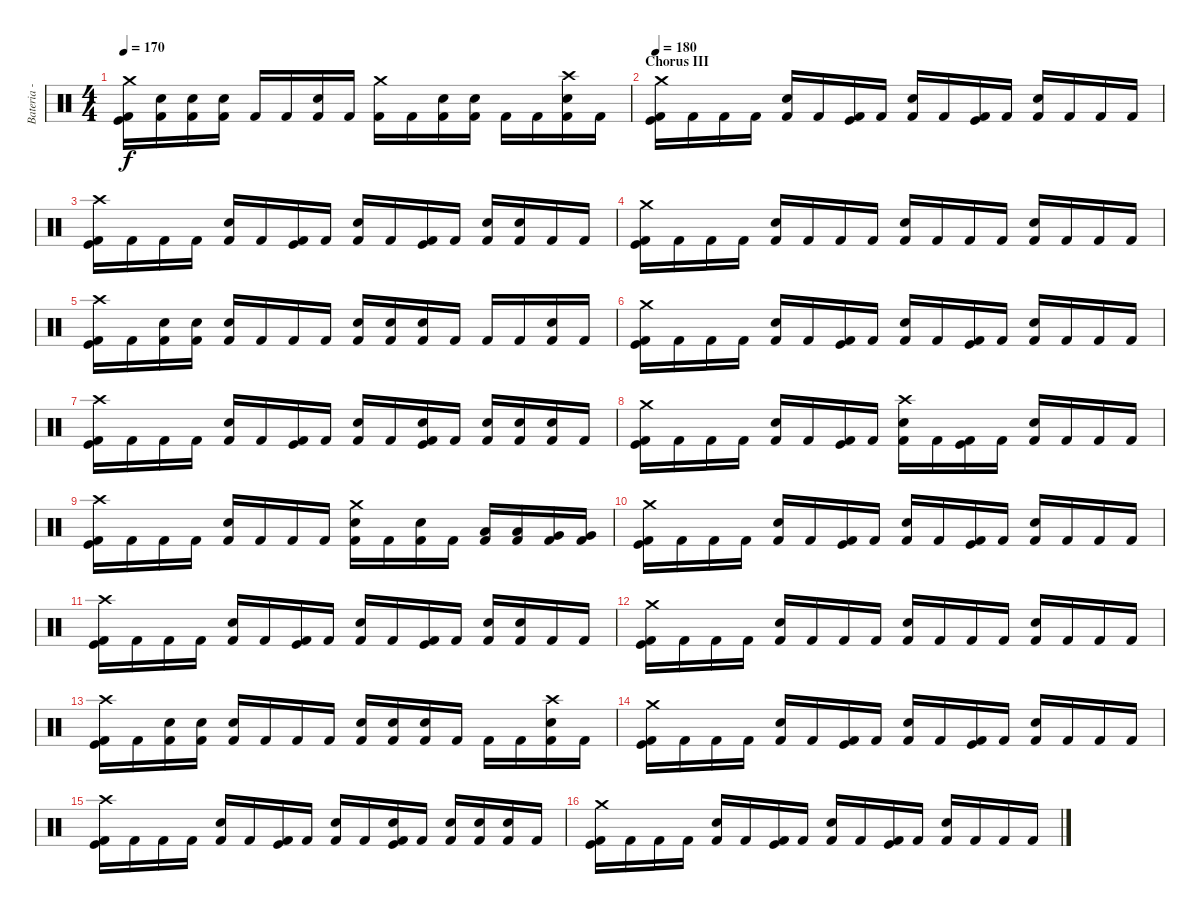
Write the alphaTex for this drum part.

\track ("Bateria - Drums" "Bateria - ") {instrument percussion}
\staff {score}
\articulation defaults
\ts (4 4)
\tempo 170
\clef neutral
\ks c
("Crash medium (hit)" "Kick (hit)" "Kick (hit) 2").16{dy f} ("Snare (hit) 2" "Kick (hit) 2").16 ("Snare (hit) 2" "Kick (hit) 2").16 ("Snare (hit) 2" "Kick (hit) 2").16 "Kick (hit) 2".16 "Kick (hit) 2".16 ("Electric Snare (hit)" "Kick (hit) 2").16 "Kick (hit) 2".16 ("Crash medium (hit)" "Kick (hit) 2").16 "Kick (hit) 2".16 ("Electric Snare (hit)" "Kick (hit) 2").16 ("Electric Snare (hit)" "Kick (hit) 2").16 "Kick (hit) 2".16 "Kick (hit) 2".16 ("Crash high (hit)" "Snare (hit) 2" "Kick (hit) 2").16 "Kick (hit) 2".16 |
\section ("" "Chorus III")
\tempo 180
("Crash medium (hit)" "Kick (hit)" "Kick (hit) 2").16 "Kick (hit) 2".16 "Kick (hit) 2".16 "Kick (hit) 2".16 ("Snare (hit) 2" "Kick (hit) 2").16 "Kick (hit) 2".16 ("Kick (hit)" "Kick (hit) 2").16 "Kick (hit) 2".16 ("Snare (hit) 2" "Kick (hit) 2").16 "Kick (hit) 2".16 ("Kick (hit)" "Kick (hit) 2").16 "Kick (hit) 2".16 ("Snare (hit) 2" "Kick (hit) 2").16 "Kick (hit) 2".16 "Kick (hit) 2".16 "Kick (hit) 2".16 |
("Crash high (hit)" "Kick (hit)" "Kick (hit) 2").16 "Kick (hit) 2".16 "Kick (hit) 2".16 "Kick (hit) 2".16 ("Snare (hit) 2" "Kick (hit) 2").16 "Kick (hit) 2".16 ("Kick (hit)" "Kick (hit) 2").16 "Kick (hit) 2".16 ("Snare (hit) 2" "Kick (hit) 2").16 "Kick (hit) 2".16 ("Kick (hit)" "Kick (hit) 2").16 "Kick (hit) 2".16 ("Snare (hit) 2" "Kick (hit) 2").16 ("Snare (hit) 2" "Kick (hit) 2").16 "Kick (hit) 2".16 "Kick (hit) 2".16 |
("Crash medium (hit)" "Kick (hit)" "Kick (hit) 2").16 "Kick (hit) 2".16 "Kick (hit) 2".16 "Kick (hit) 2".16 ("Snare (hit) 2" "Kick (hit) 2").16 "Kick (hit) 2".16 "Kick (hit) 2".16 "Kick (hit) 2".16 ("Snare (hit) 2" "Kick (hit) 2").16 "Kick (hit) 2".16 "Kick (hit) 2".16 "Kick (hit) 2".16 ("Snare (hit) 2" "Kick (hit) 2").16 "Kick (hit) 2".16 "Kick (hit) 2".16 "Kick (hit) 2".16 |
("Crash high (hit)" "Kick (hit)" "Kick (hit) 2").16 "Kick (hit) 2".16 ("Electric Snare (hit)" "Kick (hit) 2").16 ("Electric Snare (hit)" "Kick (hit) 2").16 ("Snare (hit) 2" "Kick (hit) 2").16 "Kick (hit) 2".16 "Kick (hit) 2".16 "Kick (hit) 2".16 ("Electric Snare (hit)" "Kick (hit) 2").16 ("Electric Snare (hit)" "Kick (hit) 2").16 ("Electric Snare (hit)" "Kick (hit) 2").16 "Kick (hit) 2".16 "Kick (hit) 2".16 "Kick (hit) 2".16 ("Snare (hit) 2" "Kick (hit) 2").16 "Kick (hit) 2".16 |
("Crash medium (hit)" "Kick (hit)" "Kick (hit) 2").16 "Kick (hit) 2".16 "Kick (hit) 2".16 "Kick (hit) 2".16 ("Snare (hit) 2" "Kick (hit) 2").16 "Kick (hit) 2".16 ("Kick (hit)" "Kick (hit) 2").16 "Kick (hit) 2".16 ("Snare (hit) 2" "Kick (hit) 2").16 "Kick (hit) 2".16 ("Kick (hit)" "Kick (hit) 2").16 "Kick (hit) 2".16 ("Snare (hit) 2" "Kick (hit) 2").16 "Kick (hit) 2".16 "Kick (hit) 2".16 "Kick (hit) 2".16 |
("Crash high (hit)" "Kick (hit)" "Kick (hit) 2").16 "Kick (hit) 2".16 "Kick (hit) 2".16 "Kick (hit) 2".16 ("Snare (hit) 2" "Kick (hit) 2").16 "Kick (hit) 2".16 ("Kick (hit)" "Kick (hit) 2").16 "Kick (hit) 2".16 ("Snare (hit) 2" "Kick (hit) 2").16 "Kick (hit) 2".16 ("Snare (hit) 2" "Kick (hit)" "Kick (hit) 2").16 "Kick (hit) 2".16 ("Snare (hit) 2" "Kick (hit) 2").16 ("Snare (hit) 2" "Kick (hit) 2").16 ("Snare (hit) 2" "Kick (hit) 2").16 "Kick (hit) 2".16 |
("Crash medium (hit)" "Kick (hit)" "Kick (hit) 2").16 "Kick (hit) 2".16 "Kick (hit) 2".16 "Kick (hit) 2".16 ("Snare (hit) 2" "Kick (hit) 2").16 "Kick (hit) 2".16 ("Kick (hit)" "Kick (hit) 2").16 "Kick (hit) 2".16 ("Crash high (hit)" "Snare (hit) 2" "Kick (hit) 2").16 "Kick (hit) 2".16 ("Kick (hit)" "Kick (hit) 2").16 "Kick (hit) 2".16 ("Snare (hit) 2" "Kick (hit) 2").16 "Kick (hit) 2".16 "Kick (hit) 2".16 "Kick (hit) 2".16 |
("Crash high (hit)" "Kick (hit)" "Kick (hit) 2").16 "Kick (hit) 2".16 "Kick (hit) 2".16 "Kick (hit) 2".16 ("Snare (hit) 2" "Kick (hit) 2").16 "Kick (hit) 2".16 "Kick (hit) 2".16 "Kick (hit) 2".16 ("Crash medium (hit)" "Snare (hit) 2" "Kick (hit) 2").16 "Kick (hit) 2".16 ("Electric Snare (hit)" "Kick (hit) 2").16 "Kick (hit) 2".16 ("Low Tom (hit)" "Kick (hit) 2").16 ("Low Tom (hit)" "Kick (hit) 2").16 ("Very Low Tom (hit)" "Kick (hit) 2").16 ("Very Low Tom (hit)" "Kick (hit) 2").16 |
("Crash medium (hit)" "Kick (hit)" "Kick (hit) 2").16 "Kick (hit) 2".16 "Kick (hit) 2".16 "Kick (hit) 2".16 ("Snare (hit) 2" "Kick (hit) 2").16 "Kick (hit) 2".16 ("Kick (hit)" "Kick (hit) 2").16 "Kick (hit) 2".16 ("Snare (hit) 2" "Kick (hit) 2").16 "Kick (hit) 2".16 ("Kick (hit)" "Kick (hit) 2").16 "Kick (hit) 2".16 ("Snare (hit) 2" "Kick (hit) 2").16 "Kick (hit) 2".16 "Kick (hit) 2".16 "Kick (hit) 2".16 |
("Crash high (hit)" "Kick (hit)" "Kick (hit) 2").16 "Kick (hit) 2".16 "Kick (hit) 2".16 "Kick (hit) 2".16 ("Snare (hit) 2" "Kick (hit) 2").16 "Kick (hit) 2".16 ("Kick (hit)" "Kick (hit) 2").16 "Kick (hit) 2".16 ("Snare (hit) 2" "Kick (hit) 2").16 "Kick (hit) 2".16 ("Kick (hit)" "Kick (hit) 2").16 "Kick (hit) 2".16 ("Snare (hit) 2" "Kick (hit) 2").16 ("Snare (hit) 2" "Kick (hit) 2").16 "Kick (hit) 2".16 "Kick (hit) 2".16 |
("Crash medium (hit)" "Kick (hit)" "Kick (hit) 2").16 "Kick (hit) 2".16 "Kick (hit) 2".16 "Kick (hit) 2".16 ("Snare (hit) 2" "Kick (hit) 2").16 "Kick (hit) 2".16 "Kick (hit) 2".16 "Kick (hit) 2".16 ("Snare (hit) 2" "Kick (hit) 2").16 "Kick (hit) 2".16 "Kick (hit) 2".16 "Kick (hit) 2".16 ("Snare (hit) 2" "Kick (hit) 2").16 "Kick (hit) 2".16 "Kick (hit) 2".16 "Kick (hit) 2".16 |
("Crash high (hit)" "Kick (hit)" "Kick (hit) 2").16 "Kick (hit) 2".16 ("Electric Snare (hit)" "Kick (hit) 2").16 ("Electric Snare (hit)" "Kick (hit) 2").16 ("Snare (hit) 2" "Kick (hit) 2").16 "Kick (hit) 2".16 "Kick (hit) 2".16 "Kick (hit) 2".16 ("Electric Snare (hit)" "Kick (hit) 2").16 ("Electric Snare (hit)" "Kick (hit) 2").16 ("Electric Snare (hit)" "Kick (hit) 2").16 "Kick (hit) 2".16 "Kick (hit) 2".16 "Kick (hit) 2".16 ("Crash high (hit)" "Snare (hit) 2" "Kick (hit) 2").16 "Kick (hit) 2".16 |
("Crash medium (hit)" "Kick (hit)" "Kick (hit) 2").16 "Kick (hit) 2".16 "Kick (hit) 2".16 "Kick (hit) 2".16 ("Snare (hit) 2" "Kick (hit) 2").16 "Kick (hit) 2".16 ("Kick (hit)" "Kick (hit) 2").16 "Kick (hit) 2".16 ("Snare (hit) 2" "Kick (hit) 2").16 "Kick (hit) 2".16 ("Kick (hit)" "Kick (hit) 2").16 "Kick (hit) 2".16 ("Snare (hit) 2" "Kick (hit) 2").16 "Kick (hit) 2".16 "Kick (hit) 2".16 "Kick (hit) 2".16 |
("Crash high (hit)" "Kick (hit)" "Kick (hit) 2").16 "Kick (hit) 2".16 "Kick (hit) 2".16 "Kick (hit) 2".16 ("Snare (hit) 2" "Kick (hit) 2").16 "Kick (hit) 2".16 ("Kick (hit)" "Kick (hit) 2").16 "Kick (hit) 2".16 ("Snare (hit) 2" "Kick (hit) 2").16 "Kick (hit) 2".16 ("Snare (hit) 2" "Kick (hit)" "Kick (hit) 2").16 "Kick (hit) 2".16 ("Snare (hit) 2" "Kick (hit) 2").16 ("Snare (hit) 2" "Kick (hit) 2").16 ("Snare (hit) 2" "Kick (hit) 2").16 "Kick (hit) 2".16 |
("Crash medium (hit)" "Kick (hit)" "Kick (hit) 2").16 "Kick (hit) 2".16 "Kick (hit) 2".16 "Kick (hit) 2".16 ("Snare (hit) 2" "Kick (hit) 2").16 "Kick (hit) 2".16 ("Kick (hit)" "Kick (hit) 2").16 "Kick (hit) 2".16 ("Snare (hit) 2" "Kick (hit) 2").16 "Kick (hit) 2".16 ("Kick (hit)" "Kick (hit) 2").16 "Kick (hit) 2".16 ("Snare (hit) 2" "Kick (hit) 2").16 "Kick (hit) 2".16 "Kick (hit) 2".16 "Kick (hit) 2".16
